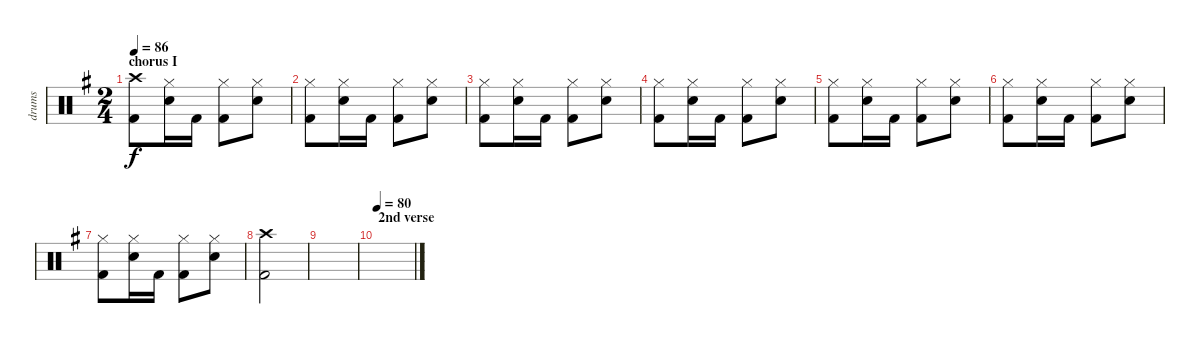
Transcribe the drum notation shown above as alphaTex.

\track ("drums" "drums") {instrument percussion}
\staff {score}
\articulation defaults
\ts (2 4)
\section ("" "chorus I")
\tempo 86
\clef neutral
\ks g
("Crash high (hit)" "Kick (hit) 2").8{dy f} ("Hi-Hat (closed)" "Snare (hit) 2").16 "Kick (hit) 2".16 ("Hi-Hat (closed)" "Kick (hit) 2").8 ("Hi-Hat (closed)" "Snare (hit) 2").8 |
("Hi-Hat (closed)" "Kick (hit) 2").8 ("Hi-Hat (closed)" "Snare (hit) 2").16 "Kick (hit) 2".16 ("Hi-Hat (closed)" "Kick (hit) 2").8 ("Hi-Hat (closed)" "Snare (hit) 2").8 |
("Hi-Hat (closed)" "Kick (hit) 2").8 ("Hi-Hat (closed)" "Snare (hit) 2").16 "Kick (hit) 2".16 ("Hi-Hat (closed)" "Kick (hit) 2").8 ("Hi-Hat (closed)" "Snare (hit) 2").8 |
("Hi-Hat (closed)" "Kick (hit) 2").8 ("Hi-Hat (closed)" "Snare (hit) 2").16 "Kick (hit) 2".16 ("Hi-Hat (closed)" "Kick (hit) 2").8 ("Hi-Hat (closed)" "Snare (hit) 2").8 |
("Hi-Hat (closed)" "Kick (hit) 2").8 ("Hi-Hat (closed)" "Snare (hit) 2").16 "Kick (hit) 2".16 ("Hi-Hat (closed)" "Kick (hit) 2").8 ("Hi-Hat (closed)" "Snare (hit) 2").8 |
("Hi-Hat (closed)" "Kick (hit) 2").8 ("Hi-Hat (closed)" "Snare (hit) 2").16 "Kick (hit) 2".16 ("Hi-Hat (closed)" "Kick (hit) 2").8 ("Hi-Hat (closed)" "Snare (hit) 2").8 |
("Hi-Hat (closed)" "Kick (hit) 2").8 ("Hi-Hat (closed)" "Snare (hit) 2").16 "Kick (hit) 2".16 ("Hi-Hat (closed)" "Kick (hit) 2").8 ("Hi-Hat (closed)" "Snare (hit) 2").8 |
("Crash high (hit)" "Kick (hit) 2").2 |
|
\section ("" "2nd verse")
\tempo 80
